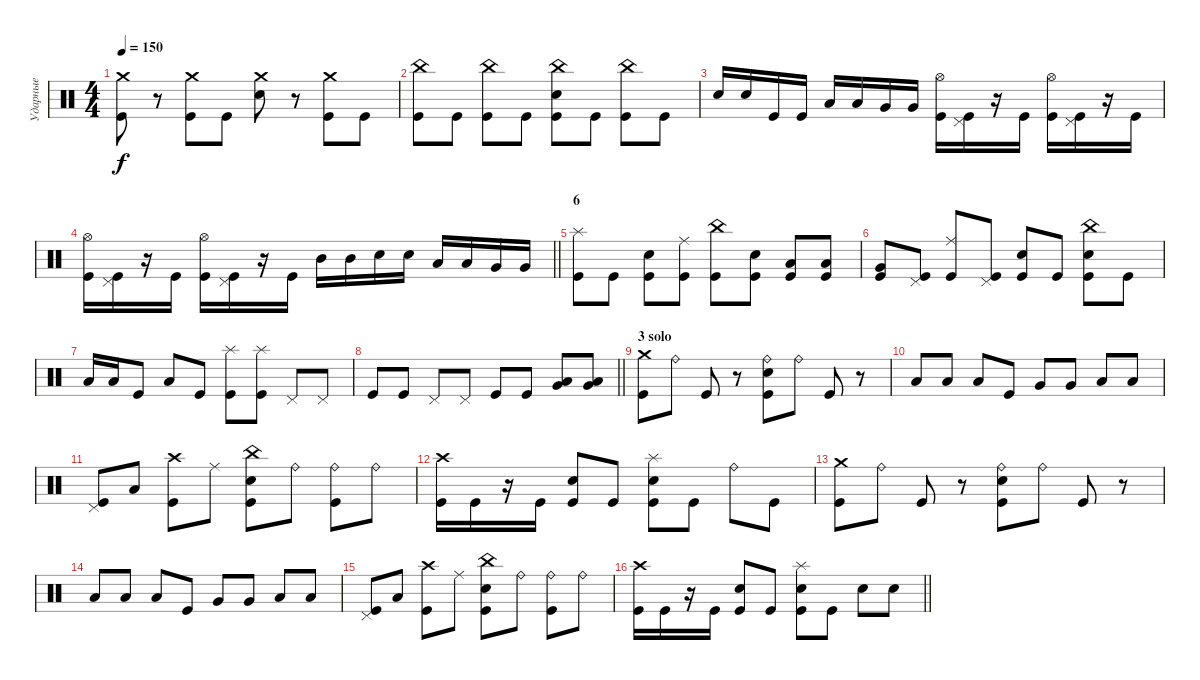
\track ("Ударные" "Ударные") {instrument percussion}
\staff {score}
\articulation defaults
\ts (4 4)
\tempo 150
\clef neutral
\ks c
("Crash medium (hit)" "Kick (hit)").8{dy f} r.8 ("Crash medium (hit)" "Kick (hit)").8 "Kick (hit)".8 ("Crash medium (hit)" "Electric Snare (hit)").8 r.8 ("Crash medium (hit)" "Kick (hit)").8 "Kick (hit)".8 |
("China (hit)" "Kick (hit)").8 "Kick (hit)".8 ("China (hit)" "Kick (hit)").8 "Kick (hit)".8 ("China (hit)" "Electric Snare (hit)" "Kick (hit)").8 "Kick (hit)".8 ("China (hit)" "Kick (hit)").8 "Kick (hit)".8 |
"Electric Snare (hit)".16 "Electric Snare (hit)".16 "Kick (hit)".16 "Kick (hit)".16 "Low Tom (hit)".16 "Low Tom (hit)".16 "Very Low Tom (hit)".16 "Very Low Tom (hit)".16 ("Hi-Hat (open)" "Kick (hit)").16 ("Pedal Hi-Hat (hit)" "Kick (hit)").16 r.16 "Kick (hit)".16 ("Hi-Hat (open)" "Kick (hit)").16 ("Pedal Hi-Hat (hit)" "Kick (hit)").16 r.16 "Kick (hit)".16 |
\barLineRight lightlight
("Hi-Hat (open)" "Kick (hit)").16 ("Pedal Hi-Hat (hit)" "Kick (hit)").16 r.16 "Kick (hit)".16 ("Hi-Hat (open)" "Kick (hit)").16 ("Pedal Hi-Hat (hit)" "Kick (hit)").16 r.16 "Kick (hit)".16 "Mid Tom (hit)".16 "Mid Tom (hit)".16 "Electric Snare (hit)".16 "Electric Snare (hit)".16 "Low Tom (hit)".16 "Low Tom (hit)".16 "Very Low Tom (hit)".16 "Very Low Tom (hit)".16 |
\section ("" "6")
("Splash (hit)" "Kick (hit)").8 "Kick (hit)".8 ("Electric Snare (hit)" "Kick (hit)").8 ("Ride (middle)" "Kick (hit)").8 ("China (hit)" "Kick (hit)").8 ("Electric Snare (hit)" "Kick (hit)").8 ("Low Tom (hit)" "Kick (hit)").8 ("Low Tom (hit)" "Kick (hit)").8 |
("Very Low Tom (hit)" "Kick (hit)").8 ("Pedal Hi-Hat (hit)" "Kick (hit)").8 ("Ride (middle)" "Kick (hit)").8 ("Pedal Hi-Hat (hit)" "Kick (hit)").8 ("Electric Snare (hit)" "Kick (hit)").8 "Kick (hit)".8 ("China (hit)" "Electric Snare (hit)" "Kick (hit)").8 "Kick (hit)".8 |
"Low Tom (hit)".16 "Low Tom (hit)".16 "Kick (hit)".8 "Low Floor Tom (hit)".8 "Kick (hit)".8 ("Splash (hit)" "Kick (hit)").8 ("Splash (hit)" "Kick (hit)").8 "Pedal Hi-Hat (hit)".8 "Pedal Hi-Hat (hit)".8 |
\barLineRight lightlight "Kick (hit)".8 "Kick (hit)".8 "Pedal Hi-Hat (hit)".8 "Pedal Hi-Hat (hit)".8 "Kick (hit)".8 "Kick (hit)".8
("Very Low Tom (hit)" "Low Floor Tom (hit)").8 ("Very Low Tom (hit)" "Low Floor Tom (hit)").8 |
\section ("" "3 solo")
("Crash medium (hit)" "Kick (hit)").8 "Ride (bell)".8 "Kick (hit)".8 r.8 ("Ride (bell)" "Electric Snare (hit)" "Kick (hit)").8 "Ride (bell)".8 "Kick (hit)".8 r.8 |
"Low Tom (hit)".8 "Low Tom (hit)".8 "Low Tom (hit)".8 "Kick (hit)".8 "Very Low Tom (hit)".8 "Very Low Tom (hit)".8 "Low Floor Tom (hit)".8 "Low Floor Tom (hit)".8 |
("Pedal Hi-Hat (hit)" "Kick (hit)").8 "Low Tom (hit)".8 ("Crash high (hit)" "Kick (hit)").8 "Ride (middle)".8 ("China (hit)" "Electric Snare (hit)" "Kick (hit)").8 "Ride (bell)".8 ("Ride (bell)" "Kick (hit)").8 "Ride (bell)".8 |
("Crash high (hit)" "Kick (hit)").16 "Kick (hit)".16 r.16 "Kick (hit)".16 ("Electric Snare (hit)" "Kick (hit)").8 "Kick (hit)".8 ("Splash (hit)" "Electric Snare (hit)" "Kick (hit)").8 "Kick (hit)".8 "Ride (bell)".8 "Kick (hit)".8 |
("Crash medium (hit)" "Kick (hit)").8 "Ride (bell)".8 "Kick (hit)".8 r.8 ("Ride (bell)" "Electric Snare (hit)" "Kick (hit)").8 "Ride (bell)".8 "Kick (hit)".8 r.8 |
"Low Tom (hit)".8 "Low Tom (hit)".8 "Low Tom (hit)".8 "Kick (hit)".8 "Very Low Tom (hit)".8 "Very Low Tom (hit)".8 "Low Floor Tom (hit)".8 "Low Floor Tom (hit)".8 |
("Pedal Hi-Hat (hit)" "Kick (hit)").8 "Low Tom (hit)".8 ("Crash high (hit)" "Kick (hit)").8 "Ride (middle)".8 ("China (hit)" "Electric Snare (hit)" "Kick (hit)").8 "Ride (bell)".8 ("Ride (bell)" "Kick (hit)").8 "Ride (bell)".8 |
\barLineRight lightlight
("Crash high (hit)" "Kick (hit)").16 "Kick (hit)".16 r.16 "Kick (hit)".16 ("Electric Snare (hit)" "Kick (hit)").8 "Kick (hit)".8 ("Splash (hit)" "Electric Snare (hit)" "Kick (hit)").8 "Kick (hit)".8 "Electric Snare (hit)".8 "Electric Snare (hit)".8
